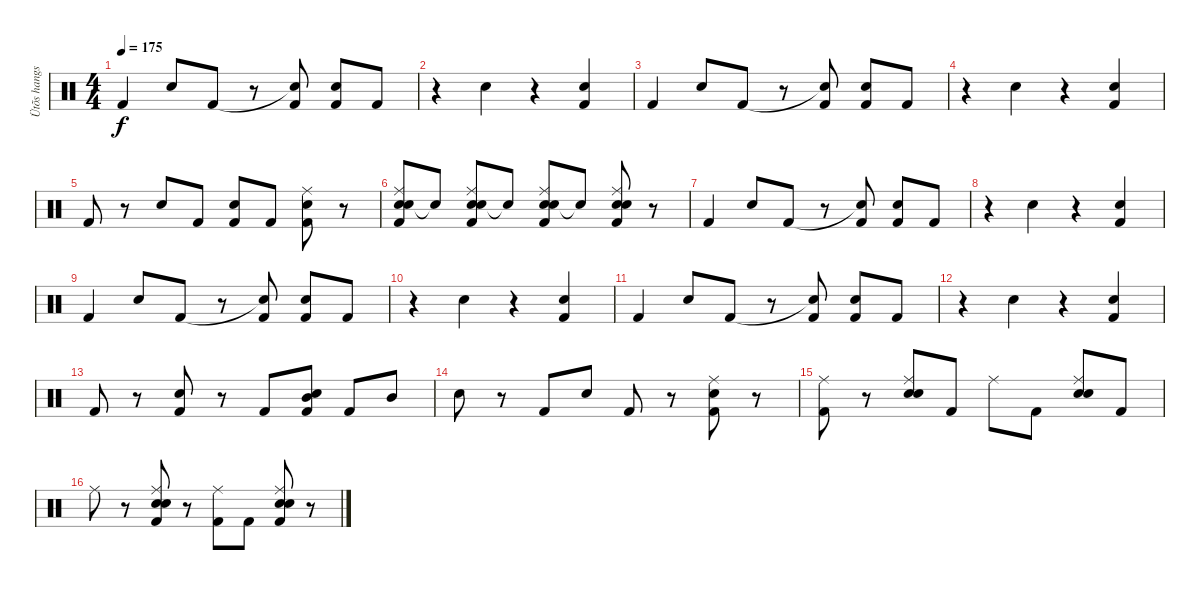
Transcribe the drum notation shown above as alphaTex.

\track ("Ütõs hangszer" "Ütõs hangs") {instrument percussion}
\staff {score}
\articulation defaults
\ts (4 4)
\tempo 175
\clef neutral
\ks c "Kick (hit) 2".4{dy f} "Snare (hit) 2".8 "Kick (hit) 2".8
r.8 ("Snare (hit)"{t} "Kick (hit) 2").8 ("Snare (hit) 2" "Kick (hit) 2").8 "Kick (hit) 2".8 |
r.4 "Snare (hit) 2".4 r.4 ("Snare (hit) 2" "Kick (hit) 2").4 |
"Kick (hit) 2".4 "Snare (hit) 2".8 "Kick (hit) 2".8 r.8 ("Snare (hit)"{t} "Kick (hit) 2").8 ("Snare (hit) 2" "Kick (hit) 2").8 "Kick (hit) 2".8 |
r.4 "Snare (hit) 2".4 r.4 ("Snare (hit) 2" "Kick (hit) 2").4 |
"Kick (hit) 2".8 r.8 "Snare (hit) 2".8 "Kick (hit) 2".8 ("Snare (hit) 2" "Kick (hit) 2").8 "Kick (hit) 2".8 ("Ride (middle)" "Snare (hit) 2" "Kick (hit) 2").8 r.8 |
("Hand Clap (hit)" "Ride (middle)" "Snare (hit) 2" "Kick (hit) 2").8 "Snare (hit)"{t}.8 ("Hand Clap (hit)" "Ride (middle)" "Snare (hit) 2" "Kick (hit) 2").8 "Snare (hit)"{t}.8 ("Hand Clap (hit)" "Ride (middle)" "Snare (hit) 2" "Kick (hit) 2").8 "Snare (hit)"{t}.8 ("Hand Clap (hit)" "Ride (middle)" "Snare (hit) 2" "Kick (hit) 2").8 r.8 |
"Kick (hit) 2".4 "Snare (hit) 2".8 "Kick (hit) 2".8 r.8 ("Snare (hit)"{t} "Kick (hit) 2").8 ("Snare (hit) 2" "Kick (hit) 2").8 "Kick (hit) 2".8 |
r.4 "Snare (hit) 2".4 r.4 ("Snare (hit) 2" "Kick (hit) 2").4 |
"Kick (hit) 2".4 "Snare (hit) 2".8 "Kick (hit) 2".8 r.8 ("Snare (hit)"{t} "Kick (hit) 2").8 ("Snare (hit) 2" "Kick (hit) 2").8 "Kick (hit) 2".8 |
r.4 "Snare (hit) 2".4 r.4 ("Snare (hit) 2" "Kick (hit) 2").4 |
"Kick (hit) 2".4 "Snare (hit) 2".8 "Kick (hit) 2".8 r.8 ("Snare (hit)"{t} "Kick (hit) 2").8 ("Snare (hit) 2" "Kick (hit) 2").8 "Kick (hit) 2".8 |
r.4 "Snare (hit) 2".4 r.4 ("Snare (hit) 2" "Kick (hit) 2").4 |
"Kick (hit) 2".8 r.8 ("Snare (hit) 2" "Kick (hit) 2").8 r.8 "Kick (hit) 2".8 ("Mid Tom (hit)" "Snare (hit) 2" "Kick (hit) 2").8 "Kick (hit) 2".8 "Mid Tom (hit)".8 |
"Snare (hit) 2".8 r.8 "Kick (hit) 2".8 "Snare (hit) 2".8 "Kick (hit) 2".8 r.8 ("Ride (middle)" "Snare (hit) 2" "Kick (hit) 2").8 r.8 |
("Ride (middle)" "Kick (hit) 2").8 r.8 ("Hand Clap (hit)" "Ride (middle)" "Snare (hit) 2").8 "Kick (hit) 2".8 "Ride (middle)".8 "Kick (hit) 2".8 ("Hand Clap (hit)" "Ride (middle)" "Snare (hit) 2").8 "Kick (hit) 2".8 |
"Ride (middle)".8 r.8 ("Hand Clap (hit)" "Ride (middle)" "Snare (hit) 2" "Kick (hit) 2").8 r.8 ("Ride (middle)" "Kick (hit) 2").8 "Kick (hit) 2".8 ("Hand Clap (hit)" "Ride (middle)" "Snare (hit) 2" "Kick (hit) 2").8 r.8
